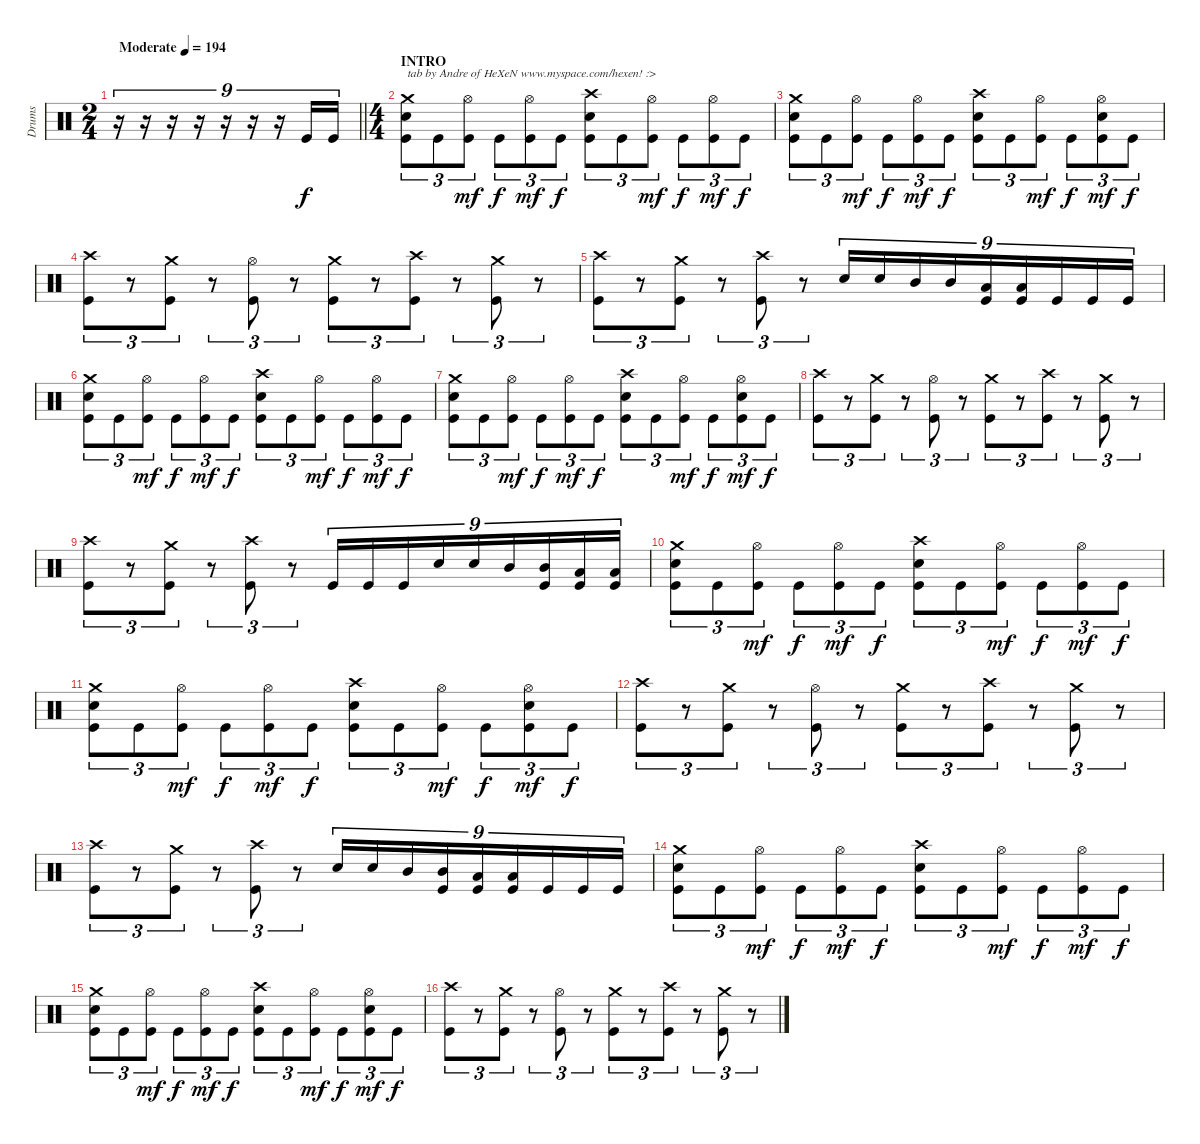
\track ("Drums" "Drums") {instrument percussion}
\staff {score}
\articulation defaults
\ts (2 4)
\tempo (194 "Moderate")
\clef neutral
\barLineRight lightlight
\ks c
r.16{tu (9 8) dy f} r.16{tu (9 8)} r.16{tu (9 8)} r.16{tu (9 8)} r.16{tu (9 8)} r.16{tu (9 8)} r.16{tu (9 8)} "Kick (hit)".16{tu (9 8)} "Kick (hit)".16{tu (9 8)} |
\ts (4 4)
\section ("" "INTRO")
("Crash medium (hit)" "Electric Snare (hit)" "Kick (hit)").8{tu (3 2) txt "tab by Andre of HeXeN www.myspace.com/hexen! :>"} "Kick (hit)".8{tu (3 2)} ("Hi-Hat (open)" "Kick (hit)").8{tu (3 2) dy mf} "Kick (hit)".8{tu (3 2) dy f} ("Hi-Hat (open)" "Kick (hit)").8{tu (3 2) dy mf} "Kick (hit)".8{tu (3 2) dy f} ("Crash high (hit)" "Electric Snare (hit)" "Kick (hit)").8{tu (3 2)} "Kick (hit)".8{tu (3 2)} ("Hi-Hat (open)" "Kick (hit)").8{tu (3 2) dy mf} "Kick (hit)".8{tu (3 2) dy f} ("Hi-Hat (open)" "Kick (hit)").8{tu (3 2) dy mf} "Kick (hit)".8{tu (3 2) dy f} |
("Crash medium (hit)" "Electric Snare (hit)" "Kick (hit)").8{tu (3 2)} "Kick (hit)".8{tu (3 2)} ("Hi-Hat (open)" "Kick (hit)").8{tu (3 2) dy mf} "Kick (hit)".8{tu (3 2) dy f} ("Hi-Hat (open)" "Kick (hit)").8{tu (3 2) dy mf} "Kick (hit)".8{tu (3 2) dy f} ("Crash high (hit)" "Electric Snare (hit)" "Kick (hit)").8{tu (3 2)} "Kick (hit)".8{tu (3 2)} ("Hi-Hat (open)" "Kick (hit)").8{tu (3 2) dy mf} "Kick (hit)".8{tu (3 2) dy f} ("Hi-Hat (open)" "Electric Snare (hit)" "Kick (hit)").8{tu (3 2) dy mf} "Kick (hit)".8{tu (3 2) dy f} |
("Crash high (hit)" "Kick (hit)").8{tu (3 2)} r.8{tu (3 2)} ("Crash medium (hit)" "Kick (hit)").8{tu (3 2)} r.8{tu (3 2)} ("Hi-Hat (open)" "Kick (hit)").8{tu (3 2)} r.8{tu (3 2)} ("Crash medium (hit)" "Kick (hit)").8{tu (3 2)} r.8{tu (3 2)} ("Crash high (hit)" "Kick (hit)").8{tu (3 2)} r.8{tu (3 2)} ("Crash medium (hit)" "Kick (hit)").8{tu (3 2)} r.8{tu (3 2)} |
("Crash high (hit)" "Kick (hit)").8{tu (3 2)} r.8{tu (3 2)} ("Crash medium (hit)" "Kick (hit)").8{tu (3 2)} r.8{tu (3 2)} ("Crash high (hit)" "Kick (hit)").8{tu (3 2)} r.8{tu (3 2)} "Electric Snare (hit)".16{tu (9 8)} "Electric Snare (hit)".16{tu (9 8)} "Mid Tom (hit)".16{tu (9 8)} "Mid Tom (hit)".16{tu (9 8)} ("Low Tom (hit)" "Kick (hit)").16{tu (9 8)} ("Low Tom (hit)" "Kick (hit)").16{tu (9 8)} "Kick (hit)".16{tu (9 8)} "Kick (hit)".16{tu (9 8)} "Kick (hit)".16{tu (9 8)} |
("Crash medium (hit)" "Electric Snare (hit)" "Kick (hit)").8{tu (3 2)} "Kick (hit)".8{tu (3 2)} ("Hi-Hat (open)" "Kick (hit)").8{tu (3 2) dy mf} "Kick (hit)".8{tu (3 2) dy f} ("Hi-Hat (open)" "Kick (hit)").8{tu (3 2) dy mf} "Kick (hit)".8{tu (3 2) dy f} ("Crash high (hit)" "Electric Snare (hit)" "Kick (hit)").8{tu (3 2)} "Kick (hit)".8{tu (3 2)} ("Hi-Hat (open)" "Kick (hit)").8{tu (3 2) dy mf} "Kick (hit)".8{tu (3 2) dy f} ("Hi-Hat (open)" "Kick (hit)").8{tu (3 2) dy mf} "Kick (hit)".8{tu (3 2) dy f} |
("Crash medium (hit)" "Electric Snare (hit)" "Kick (hit)").8{tu (3 2)} "Kick (hit)".8{tu (3 2)} ("Hi-Hat (open)" "Kick (hit)").8{tu (3 2) dy mf} "Kick (hit)".8{tu (3 2) dy f} ("Hi-Hat (open)" "Kick (hit)").8{tu (3 2) dy mf} "Kick (hit)".8{tu (3 2) dy f} ("Crash high (hit)" "Electric Snare (hit)" "Kick (hit)").8{tu (3 2)} "Kick (hit)".8{tu (3 2)} ("Hi-Hat (open)" "Kick (hit)").8{tu (3 2) dy mf} "Kick (hit)".8{tu (3 2) dy f} ("Hi-Hat (open)" "Electric Snare (hit)" "Kick (hit)").8{tu (3 2) dy mf} "Kick (hit)".8{tu (3 2) dy f} |
("Crash high (hit)" "Kick (hit)").8{tu (3 2)} r.8{tu (3 2)} ("Crash medium (hit)" "Kick (hit)").8{tu (3 2)} r.8{tu (3 2)} ("Hi-Hat (open)" "Kick (hit)").8{tu (3 2)} r.8{tu (3 2)} ("Crash medium (hit)" "Kick (hit)").8{tu (3 2)} r.8{tu (3 2)} ("Crash high (hit)" "Kick (hit)").8{tu (3 2)} r.8{tu (3 2)} ("Crash medium (hit)" "Kick (hit)").8{tu (3 2)} r.8{tu (3 2)} |
("Crash high (hit)" "Kick (hit)").8{tu (3 2)} r.8{tu (3 2)} ("Crash medium (hit)" "Kick (hit)").8{tu (3 2)} r.8{tu (3 2)} ("Crash high (hit)" "Kick (hit)").8{tu (3 2)} r.8{tu (3 2)} "Kick (hit)".16{tu (9 8)} "Kick (hit)".16{tu (9 8)} "Kick (hit)".16{tu (9 8)} "Electric Snare (hit)".16{tu (9 8)} "Electric Snare (hit)".16{tu (9 8)} "Mid Tom (hit)".16{tu (9 8)} ("Mid Tom (hit)" "Kick (hit)").16{tu (9 8)} ("Low Tom (hit)" "Kick (hit)").16{tu (9 8)} ("Low Tom (hit)" "Kick (hit)").16{tu (9 8)} |
("Crash medium (hit)" "Electric Snare (hit)" "Kick (hit)").8{tu (3 2)} "Kick (hit)".8{tu (3 2)} ("Hi-Hat (open)" "Kick (hit)").8{tu (3 2) dy mf} "Kick (hit)".8{tu (3 2) dy f} ("Hi-Hat (open)" "Kick (hit)").8{tu (3 2) dy mf} "Kick (hit)".8{tu (3 2) dy f} ("Crash high (hit)" "Electric Snare (hit)" "Kick (hit)").8{tu (3 2)} "Kick (hit)".8{tu (3 2)} ("Hi-Hat (open)" "Kick (hit)").8{tu (3 2) dy mf} "Kick (hit)".8{tu (3 2) dy f} ("Hi-Hat (open)" "Kick (hit)").8{tu (3 2) dy mf} "Kick (hit)".8{tu (3 2) dy f} |
("Crash medium (hit)" "Electric Snare (hit)" "Kick (hit)").8{tu (3 2)} "Kick (hit)".8{tu (3 2)} ("Hi-Hat (open)" "Kick (hit)").8{tu (3 2) dy mf} "Kick (hit)".8{tu (3 2) dy f} ("Hi-Hat (open)" "Kick (hit)").8{tu (3 2) dy mf} "Kick (hit)".8{tu (3 2) dy f} ("Crash high (hit)" "Electric Snare (hit)" "Kick (hit)").8{tu (3 2)} "Kick (hit)".8{tu (3 2)} ("Hi-Hat (open)" "Kick (hit)").8{tu (3 2) dy mf} "Kick (hit)".8{tu (3 2) dy f} ("Hi-Hat (open)" "Electric Snare (hit)" "Kick (hit)").8{tu (3 2) dy mf} "Kick (hit)".8{tu (3 2) dy f} |
("Crash high (hit)" "Kick (hit)").8{tu (3 2)} r.8{tu (3 2)} ("Crash medium (hit)" "Kick (hit)").8{tu (3 2)} r.8{tu (3 2)} ("Hi-Hat (open)" "Kick (hit)").8{tu (3 2)} r.8{tu (3 2)} ("Crash medium (hit)" "Kick (hit)").8{tu (3 2)} r.8{tu (3 2)} ("Crash high (hit)" "Kick (hit)").8{tu (3 2)} r.8{tu (3 2)} ("Crash medium (hit)" "Kick (hit)").8{tu (3 2)} r.8{tu (3 2)} |
("Crash high (hit)" "Kick (hit)").8{tu (3 2)} r.8{tu (3 2)} ("Crash medium (hit)" "Kick (hit)").8{tu (3 2)} r.8{tu (3 2)} ("Crash high (hit)" "Kick (hit)").8{tu (3 2)} r.8{tu (3 2)} "Electric Snare (hit)".16{tu (9 8)} "Electric Snare (hit)".16{tu (9 8)} "Mid Tom (hit)".16{tu (9 8)} ("Mid Tom (hit)" "Kick (hit)").16{tu (9 8)} ("Low Tom (hit)" "Kick (hit)").16{tu (9 8)} ("Low Tom (hit)" "Kick (hit)").16{tu (9 8)} "Kick (hit)".16{tu (9 8)} "Kick (hit)".16{tu (9 8)} "Kick (hit)".16{tu (9 8)} |
("Crash medium (hit)" "Electric Snare (hit)" "Kick (hit)").8{tu (3 2)} "Kick (hit)".8{tu (3 2)} ("Hi-Hat (open)" "Kick (hit)").8{tu (3 2) dy mf} "Kick (hit)".8{tu (3 2) dy f} ("Hi-Hat (open)" "Kick (hit)").8{tu (3 2) dy mf} "Kick (hit)".8{tu (3 2) dy f} ("Crash high (hit)" "Electric Snare (hit)" "Kick (hit)").8{tu (3 2)} "Kick (hit)".8{tu (3 2)} ("Hi-Hat (open)" "Kick (hit)").8{tu (3 2) dy mf} "Kick (hit)".8{tu (3 2) dy f} ("Hi-Hat (open)" "Kick (hit)").8{tu (3 2) dy mf} "Kick (hit)".8{tu (3 2) dy f} |
("Crash medium (hit)" "Electric Snare (hit)" "Kick (hit)").8{tu (3 2)} "Kick (hit)".8{tu (3 2)} ("Hi-Hat (open)" "Kick (hit)").8{tu (3 2) dy mf} "Kick (hit)".8{tu (3 2) dy f} ("Hi-Hat (open)" "Kick (hit)").8{tu (3 2) dy mf} "Kick (hit)".8{tu (3 2) dy f} ("Crash high (hit)" "Electric Snare (hit)" "Kick (hit)").8{tu (3 2)} "Kick (hit)".8{tu (3 2)} ("Hi-Hat (open)" "Kick (hit)").8{tu (3 2) dy mf} "Kick (hit)".8{tu (3 2) dy f} ("Hi-Hat (open)" "Electric Snare (hit)" "Kick (hit)").8{tu (3 2) dy mf} "Kick (hit)".8{tu (3 2) dy f} |
("Crash high (hit)" "Kick (hit)").8{tu (3 2)} r.8{tu (3 2)} ("Crash medium (hit)" "Kick (hit)").8{tu (3 2)} r.8{tu (3 2)} ("Hi-Hat (open)" "Kick (hit)").8{tu (3 2)} r.8{tu (3 2)} ("Crash medium (hit)" "Kick (hit)").8{tu (3 2)} r.8{tu (3 2)} ("Crash high (hit)" "Kick (hit)").8{tu (3 2)} r.8{tu (3 2)} ("Crash medium (hit)" "Kick (hit)").8{tu (3 2)} r.8{tu (3 2)}
